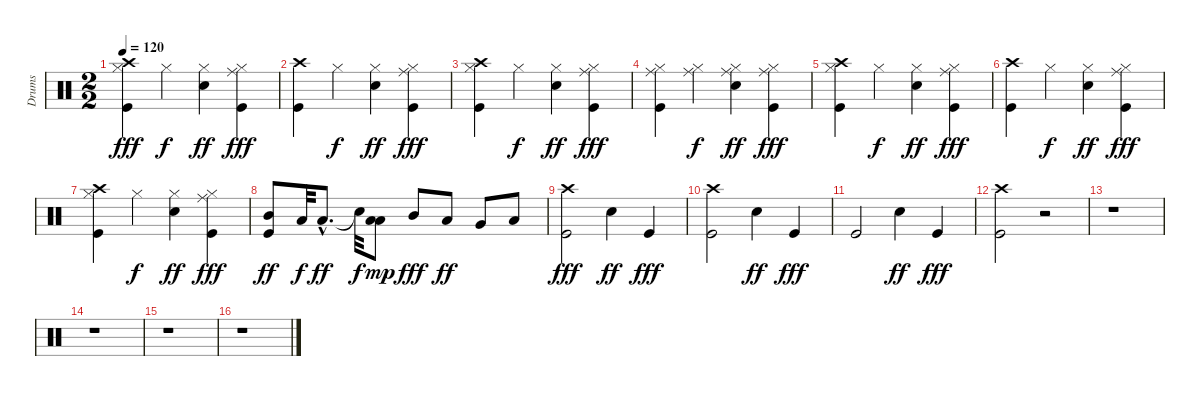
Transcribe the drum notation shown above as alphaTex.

\track ("Drums" "Drums") {instrument percussion}
\staff {score}
\articulation defaults
\ts (2 2)
\tempo 120
\clef neutral
\ks c
("Crash high (hit)" "Hi-Hat (closed)" "Kick (hit)").4{dy fff} "Hi-Hat (closed)".4{dy f} ("Hi-Hat (closed)" "Electric Snare (hit)").4{dy ff} ("Ride (middle)" "Hi-Hat (closed)" "Kick (hit)").4{dy fff} |
("Crash high (hit)" "Kick (hit)").4 "Hi-Hat (closed)".4{dy f} ("Hi-Hat (closed)" "Electric Snare (hit)").4{dy ff} ("Ride (middle)" "Hi-Hat (closed)" "Kick (hit)").4{dy fff} |
("Crash high (hit)" "Hi-Hat (closed)" "Kick (hit)").4 "Hi-Hat (closed)".4{dy f} ("Hi-Hat (closed)" "Electric Snare (hit)").4{dy ff} ("Ride (middle)" "Hi-Hat (closed)" "Kick (hit)").4{dy fff} |
("Ride (middle)" "Hi-Hat (closed)" "Kick (hit)").4 ("Ride (middle)" "Hi-Hat (closed)").4{dy f} ("Ride (middle)" "Hi-Hat (closed)" "Electric Snare (hit)").4{dy ff} ("Ride (middle)" "Hi-Hat (closed)" "Kick (hit)").4{dy fff} |
("Crash high (hit)" "Hi-Hat (closed)" "Kick (hit)").4 "Hi-Hat (closed)".4{dy f} ("Hi-Hat (closed)" "Electric Snare (hit)").4{dy ff} ("Ride (middle)" "Hi-Hat (closed)" "Kick (hit)").4{dy fff} |
("Crash high (hit)" "Kick (hit)").4 "Hi-Hat (closed)".4{dy f} ("Hi-Hat (closed)" "Electric Snare (hit)").4{dy ff} ("Ride (middle)" "Hi-Hat (closed)" "Kick (hit)").4{dy fff} |
("Crash high (hit)" "Hi-Hat (closed)" "Kick (hit)").4 "Hi-Hat (closed)".4{dy f} ("Hi-Hat (closed)" "Electric Snare (hit)").4{dy ff} ("Ride (middle)" "Hi-Hat (closed)" "Kick (hit)").4{dy fff} |
("Mid Tom (hit)" "Kick (hit)").8{dy ff} "Low Tom (hit)".32{dy f} "Low Tom (hit)"{hac}.8{d dy ff} "Snare (hit)"{t}.32{dy f} ("Low Tom (hit)" "Low Tom (hit)").8{dy mp} "Mid Tom (hit)".8{dy fff} "Low Tom (hit)".8{dy ff} "Very Low Tom (hit)".8 "Low Floor Tom (hit)".8 |
("Crash high (hit)" "Kick (hit)").2{dy fff} "Electric Snare (hit)".4{dy ff} "Kick (hit)".4{dy fff} |
("Crash high (hit)" "Kick (hit)").2 "Electric Snare (hit)".4{dy ff} "Kick (hit)".4{dy fff} |
"Kick (hit)".2 "Electric Snare (hit)".4{dy ff} "Kick (hit)".4{dy fff} |
("Crash high (hit)" "Kick (hit)").2 r.2 |
r.1 |
r.1 |
r.1 |
r.1
